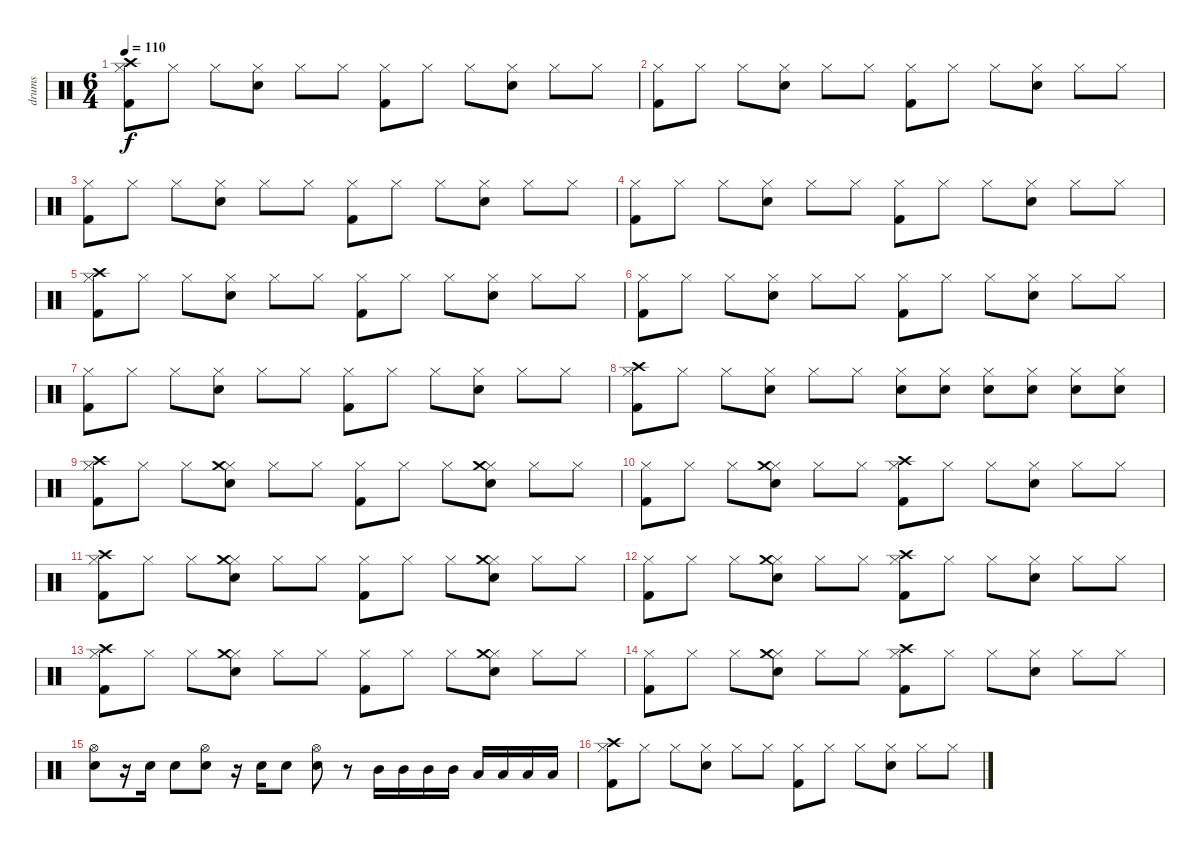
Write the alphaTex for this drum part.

\track ("drums" "drums") {instrument percussion}
\staff {score}
\articulation defaults
\ts (6 4)
\tempo 110
\clef neutral
\ks c
("Hi-Hat (closed)" "Kick (hit) 2" "Crash high (hit)").8{dy f} "Hi-Hat (closed)".8 "Hi-Hat (closed)".8 ("Hi-Hat (closed)" "Snare (hit) 2").8 "Hi-Hat (closed)".8 "Hi-Hat (closed)".8 ("Hi-Hat (closed)" "Kick (hit) 2").8 "Hi-Hat (closed)".8 "Hi-Hat (closed)".8 ("Hi-Hat (closed)" "Snare (hit) 2").8 "Hi-Hat (closed)".8 "Hi-Hat (closed)".8 |
("Hi-Hat (closed)" "Kick (hit) 2").8 "Hi-Hat (closed)".8 "Hi-Hat (closed)".8 ("Hi-Hat (closed)" "Snare (hit) 2").8 "Hi-Hat (closed)".8 "Hi-Hat (closed)".8 ("Hi-Hat (closed)" "Kick (hit) 2").8 "Hi-Hat (closed)".8 "Hi-Hat (closed)".8 ("Hi-Hat (closed)" "Snare (hit) 2").8 "Hi-Hat (closed)".8 "Hi-Hat (closed)".8 |
("Hi-Hat (closed)" "Kick (hit) 2").8 "Hi-Hat (closed)".8 "Hi-Hat (closed)".8 ("Hi-Hat (closed)" "Snare (hit) 2").8 "Hi-Hat (closed)".8 "Hi-Hat (closed)".8 ("Hi-Hat (closed)" "Kick (hit) 2").8 "Hi-Hat (closed)".8 "Hi-Hat (closed)".8 ("Hi-Hat (closed)" "Snare (hit) 2").8 "Hi-Hat (closed)".8 "Hi-Hat (closed)".8 |
("Hi-Hat (closed)" "Kick (hit) 2").8 "Hi-Hat (closed)".8 "Hi-Hat (closed)".8 ("Hi-Hat (closed)" "Snare (hit) 2").8 "Hi-Hat (closed)".8 "Hi-Hat (closed)".8 ("Hi-Hat (closed)" "Kick (hit) 2").8 "Hi-Hat (closed)".8 "Hi-Hat (closed)".8 ("Hi-Hat (closed)" "Snare (hit) 2").8 "Hi-Hat (closed)".8 "Hi-Hat (closed)".8 |
("Hi-Hat (closed)" "Kick (hit) 2" "Crash high (hit)").8 "Hi-Hat (closed)".8 "Hi-Hat (closed)".8 ("Hi-Hat (closed)" "Snare (hit) 2").8 "Hi-Hat (closed)".8 "Hi-Hat (closed)".8 ("Hi-Hat (closed)" "Kick (hit) 2").8 "Hi-Hat (closed)".8 "Hi-Hat (closed)".8 ("Hi-Hat (closed)" "Snare (hit) 2").8 "Hi-Hat (closed)".8 "Hi-Hat (closed)".8 |
("Hi-Hat (closed)" "Kick (hit) 2").8 "Hi-Hat (closed)".8 "Hi-Hat (closed)".8 ("Hi-Hat (closed)" "Snare (hit) 2").8 "Hi-Hat (closed)".8 "Hi-Hat (closed)".8 ("Hi-Hat (closed)" "Kick (hit) 2").8 "Hi-Hat (closed)".8 "Hi-Hat (closed)".8 ("Hi-Hat (closed)" "Snare (hit) 2").8 "Hi-Hat (closed)".8 "Hi-Hat (closed)".8 |
("Hi-Hat (closed)" "Kick (hit) 2").8 "Hi-Hat (closed)".8 "Hi-Hat (closed)".8 ("Hi-Hat (closed)" "Snare (hit) 2").8 "Hi-Hat (closed)".8 "Hi-Hat (closed)".8 ("Hi-Hat (closed)" "Kick (hit) 2").8 "Hi-Hat (closed)".8 "Hi-Hat (closed)".8 ("Hi-Hat (closed)" "Snare (hit) 2").8 "Hi-Hat (closed)".8 "Hi-Hat (closed)".8 |
("Hi-Hat (closed)" "Kick (hit) 2" "Crash high (hit)").8 "Hi-Hat (closed)".8 "Hi-Hat (closed)".8 ("Hi-Hat (closed)" "Snare (hit) 2").8 "Hi-Hat (closed)".8 "Hi-Hat (closed)".8 ("Hi-Hat (closed)" "Snare (hit) 2").8 ("Hi-Hat (closed)" "Snare (hit) 2").8 ("Hi-Hat (closed)" "Snare (hit) 2").8 ("Hi-Hat (closed)" "Snare (hit) 2").8 ("Hi-Hat (closed)" "Snare (hit) 2").8 ("Hi-Hat (closed)" "Snare (hit) 2").8 |
("Hi-Hat (closed)" "Kick (hit) 2" "Crash high (hit)").8 "Hi-Hat (closed)".8 "Hi-Hat (closed)".8 ("Hi-Hat (closed)" "Snare (hit) 2" "Crash medium (hit)").8 "Hi-Hat (closed)".8 "Hi-Hat (closed)".8 ("Hi-Hat (closed)" "Kick (hit) 2").8 "Hi-Hat (closed)".8 "Hi-Hat (closed)".8 ("Hi-Hat (closed)" "Snare (hit) 2" "Crash medium (hit)").8 "Hi-Hat (closed)".8 "Hi-Hat (closed)".8 |
("Hi-Hat (closed)" "Kick (hit) 2").8 "Hi-Hat (closed)".8 "Hi-Hat (closed)".8 ("Hi-Hat (closed)" "Snare (hit) 2" "Crash medium (hit)").8 "Hi-Hat (closed)".8 "Hi-Hat (closed)".8 ("Hi-Hat (closed)" "Kick (hit) 2" "Crash high (hit)").8 "Hi-Hat (closed)".8 "Hi-Hat (closed)".8 ("Hi-Hat (closed)" "Snare (hit) 2").8 "Hi-Hat (closed)".8 "Hi-Hat (closed)".8 |
("Hi-Hat (closed)" "Kick (hit) 2" "Crash high (hit)").8 "Hi-Hat (closed)".8 "Hi-Hat (closed)".8 ("Hi-Hat (closed)" "Snare (hit) 2" "Crash medium (hit)").8 "Hi-Hat (closed)".8 "Hi-Hat (closed)".8 ("Hi-Hat (closed)" "Kick (hit) 2").8 "Hi-Hat (closed)".8 "Hi-Hat (closed)".8 ("Hi-Hat (closed)" "Snare (hit) 2" "Crash medium (hit)").8 "Hi-Hat (closed)".8 "Hi-Hat (closed)".8 |
("Hi-Hat (closed)" "Kick (hit) 2").8 "Hi-Hat (closed)".8 "Hi-Hat (closed)".8 ("Hi-Hat (closed)" "Snare (hit) 2" "Crash medium (hit)").8 "Hi-Hat (closed)".8 "Hi-Hat (closed)".8 ("Hi-Hat (closed)" "Kick (hit) 2" "Crash high (hit)").8 "Hi-Hat (closed)".8 "Hi-Hat (closed)".8 ("Hi-Hat (closed)" "Snare (hit) 2").8 "Hi-Hat (closed)".8 "Hi-Hat (closed)".8 |
("Hi-Hat (closed)" "Kick (hit) 2" "Crash high (hit)").8 "Hi-Hat (closed)".8 "Hi-Hat (closed)".8 ("Hi-Hat (closed)" "Snare (hit) 2" "Crash medium (hit)").8 "Hi-Hat (closed)".8 "Hi-Hat (closed)".8 ("Hi-Hat (closed)" "Kick (hit) 2").8 "Hi-Hat (closed)".8 "Hi-Hat (closed)".8 ("Hi-Hat (closed)" "Snare (hit) 2" "Crash medium (hit)").8 "Hi-Hat (closed)".8 "Hi-Hat (closed)".8 |
("Hi-Hat (closed)" "Kick (hit) 2").8 "Hi-Hat (closed)".8 "Hi-Hat (closed)".8 ("Hi-Hat (closed)" "Snare (hit) 2" "Crash medium (hit)").8 "Hi-Hat (closed)".8 "Hi-Hat (closed)".8 ("Hi-Hat (closed)" "Kick (hit) 2" "Crash high (hit)").8 "Hi-Hat (closed)".8 "Hi-Hat (closed)".8 ("Hi-Hat (closed)" "Snare (hit) 2").8 "Hi-Hat (closed)".8 "Hi-Hat (closed)".8 |
("Hi-Hat (open)" "Snare (hit) 2").8 r.16 "Snare (hit) 2".16 "Snare (hit) 2".8 ("Hi-Hat (open)" "Snare (hit) 2").8 r.16 "Snare (hit) 2".16 "Snare (hit) 2".8 ("Hi-Hat (open)" "Snare (hit) 2").8 r.8 "Mid Tom (hit)".16 "Mid Tom (hit)".16 "Mid Tom (hit)".16 "Mid Tom (hit)".16 "Low Tom (hit)".16 "Low Tom (hit)".16 "Low Tom (hit)".16 "Low Tom (hit)".16 |
("Hi-Hat (closed)" "Kick (hit) 2" "Crash high (hit)").8 "Hi-Hat (closed)".8 "Hi-Hat (closed)".8 ("Hi-Hat (closed)" "Snare (hit) 2").8 "Hi-Hat (closed)".8 "Hi-Hat (closed)".8 ("Hi-Hat (closed)" "Kick (hit) 2").8 "Hi-Hat (closed)".8 "Hi-Hat (closed)".8 ("Hi-Hat (closed)" "Snare (hit) 2").8 "Hi-Hat (closed)".8 "Hi-Hat (closed)".8
